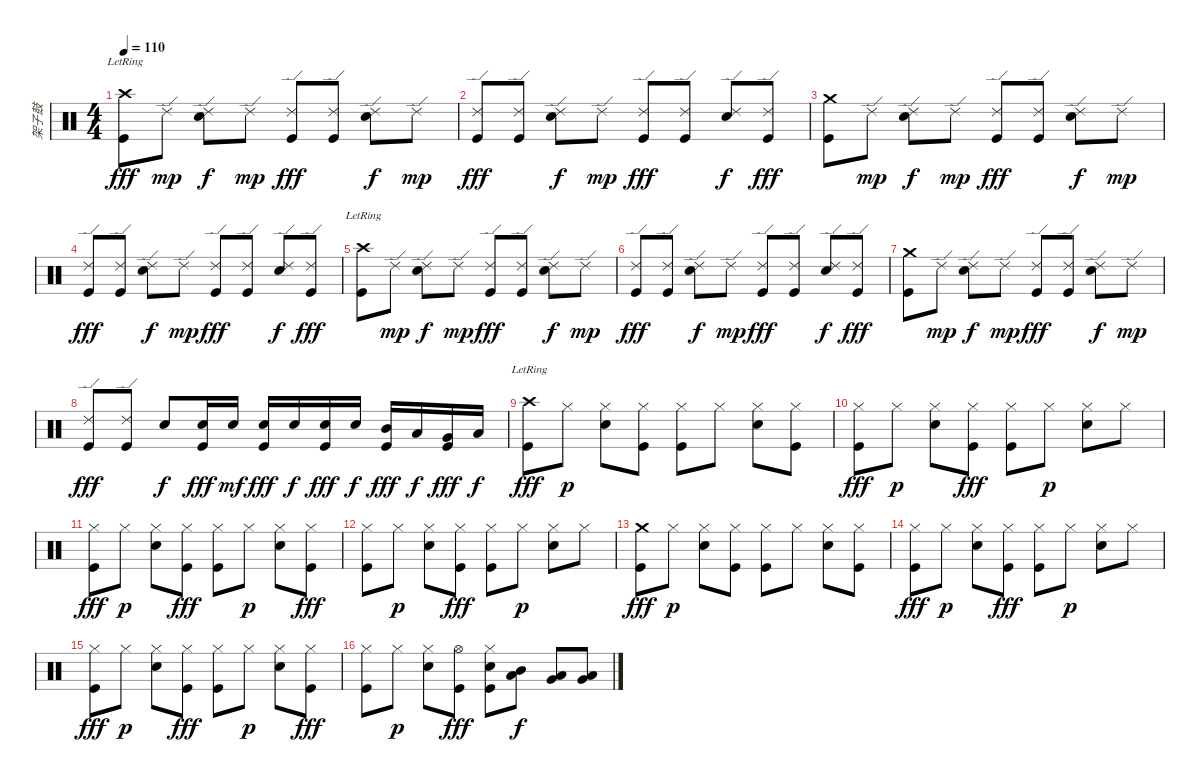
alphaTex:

\track ("架子鼓" "架子鼓") {instrument percussion}
\staff {score}
\articulation defaults
\ts (4 4)
\tempo 110
\clef neutral
\ks c
("Crash high (hit)"{lr} "Kick (hit)").8{dy fff} "Ride (edge) 2".8{dy mp} ("Ride (edge) 2" "Electric Snare (hit)").8{dy f} "Ride (edge) 2".8{dy mp} ("Ride (edge) 2" "Kick (hit)").8{dy fff} ("Ride (edge) 2" "Kick (hit)").8 ("Ride (edge) 2" "Electric Snare (hit)").8{dy f} "Ride (edge) 2".8{dy mp} |
("Ride (edge) 2" "Kick (hit)").8{dy fff} ("Ride (edge) 2" "Kick (hit)").8 ("Ride (edge) 2" "Electric Snare (hit)").8{dy f} "Ride (edge) 2".8{dy mp} ("Ride (edge) 2" "Kick (hit)").8{dy fff} ("Ride (edge) 2" "Kick (hit)").8 ("Ride (edge) 2" "Electric Snare (hit)").8{dy f} ("Ride (edge) 2" "Kick (hit)").8{dy fff} |
("Crash medium (hit)" "Kick (hit)").8 "Ride (edge) 2".8{dy mp} ("Ride (edge) 2" "Electric Snare (hit)").8{dy f} "Ride (edge) 2".8{dy mp} ("Ride (edge) 2" "Kick (hit)").8{dy fff} ("Ride (edge) 2" "Kick (hit)").8 ("Ride (edge) 2" "Electric Snare (hit)").8{dy f} "Ride (edge) 2".8{dy mp} |
("Ride (edge) 2" "Kick (hit)").8{dy fff} ("Ride (edge) 2" "Kick (hit)").8 ("Ride (edge) 2" "Electric Snare (hit)").8{dy f} "Ride (edge) 2".8{dy mp} ("Ride (edge) 2" "Kick (hit)").8{dy fff} ("Ride (edge) 2" "Kick (hit)").8 ("Ride (edge) 2" "Electric Snare (hit)").8{dy f} ("Ride (edge) 2" "Kick (hit)").8{dy fff} |
("Crash high (hit)"{lr} "Kick (hit)").8 "Ride (edge) 2".8{dy mp} ("Ride (edge) 2" "Electric Snare (hit)").8{dy f} "Ride (edge) 2".8{dy mp} ("Ride (edge) 2" "Kick (hit)").8{dy fff} ("Ride (edge) 2" "Kick (hit)").8 ("Ride (edge) 2" "Electric Snare (hit)").8{dy f} "Ride (edge) 2".8{dy mp} |
("Ride (edge) 2" "Kick (hit)").8{dy fff} ("Ride (edge) 2" "Kick (hit)").8 ("Ride (edge) 2" "Electric Snare (hit)").8{dy f} "Ride (edge) 2".8{dy mp} ("Ride (edge) 2" "Kick (hit)").8{dy fff} ("Ride (edge) 2" "Kick (hit)").8 ("Ride (edge) 2" "Electric Snare (hit)").8{dy f} ("Ride (edge) 2" "Kick (hit)").8{dy fff} |
("Crash medium (hit)" "Kick (hit)").8 "Ride (edge) 2".8{dy mp} ("Ride (edge) 2" "Electric Snare (hit)").8{dy f} "Ride (edge) 2".8{dy mp} ("Ride (edge) 2" "Kick (hit)").8{dy fff} ("Ride (edge) 2" "Kick (hit)").8 ("Ride (edge) 2" "Electric Snare (hit)").8{dy f} "Ride (edge) 2".8{dy mp} |
("Ride (edge) 2" "Kick (hit)").8{dy fff} ("Ride (edge) 2" "Kick (hit)").8 "Electric Snare (hit)".8{dy f} ("Electric Snare (hit)" "Kick (hit)").16{dy fff} "Electric Snare (hit)".16{dy mf} ("Electric Snare (hit)" "Kick (hit)").16{dy fff} "Electric Snare (hit)".16{dy f} ("Electric Snare (hit)" "Kick (hit)").16{dy fff} "Electric Snare (hit)".16{dy f} ("Mid Tom (hit)" "Kick (hit)").16{dy fff} "Low Tom (hit)".16{dy f} ("Very Low Tom (hit)" "Kick (hit)").16{dy fff} "Low Floor Tom (hit)".16{dy f} |
("Crash high (hit)"{lr} "Kick (hit)").8{dy fff} "Hi-Hat (closed)".8{dy p} ("Electric Snare (hit)" "Hi-Hat (closed)").8 ("Hi-Hat (closed)" "Kick (hit)").8 ("Hi-Hat (closed)" "Kick (hit)").8 "Hi-Hat (closed)".8 ("Electric Snare (hit)" "Hi-Hat (closed)").8 ("Hi-Hat (closed)" "Kick (hit)").8 |
("Hi-Hat (closed)" "Kick (hit)").8{dy fff} "Hi-Hat (closed)".8{dy p} ("Electric Snare (hit)" "Hi-Hat (closed)").8 ("Hi-Hat (closed)" "Kick (hit)").8{dy fff} ("Hi-Hat (closed)" "Kick (hit)").8 "Hi-Hat (closed)".8{dy p} ("Electric Snare (hit)" "Hi-Hat (closed)").8 "Hi-Hat (closed)".8 |
("Hi-Hat (closed)" "Kick (hit)").8{dy fff} "Hi-Hat (closed)".8{dy p} ("Electric Snare (hit)" "Hi-Hat (closed)").8 ("Hi-Hat (closed)" "Kick (hit)").8{dy fff} ("Hi-Hat (closed)" "Kick (hit)").8 "Hi-Hat (closed)".8{dy p} ("Electric Snare (hit)" "Hi-Hat (closed)").8 ("Hi-Hat (closed)" "Kick (hit)").8{dy fff} |
("Hi-Hat (closed)" "Kick (hit)").8 "Hi-Hat (closed)".8{dy p} ("Electric Snare (hit)" "Hi-Hat (closed)").8 ("Hi-Hat (closed)" "Kick (hit)").8{dy fff} ("Hi-Hat (closed)" "Kick (hit)").8 "Hi-Hat (closed)".8{dy p} ("Electric Snare (hit)" "Hi-Hat (closed)").8 "Hi-Hat (closed)".8 |
("Crash medium (hit)" "Kick (hit)").8{dy fff} "Hi-Hat (closed)".8{dy p} ("Electric Snare (hit)" "Hi-Hat (closed)").8 ("Hi-Hat (closed)" "Kick (hit)").8 ("Hi-Hat (closed)" "Kick (hit)").8 "Hi-Hat (closed)".8 ("Electric Snare (hit)" "Hi-Hat (closed)").8 ("Hi-Hat (closed)" "Kick (hit)").8 |
("Hi-Hat (closed)" "Kick (hit)").8{dy fff} "Hi-Hat (closed)".8{dy p} ("Electric Snare (hit)" "Hi-Hat (closed)").8 ("Hi-Hat (closed)" "Kick (hit)").8{dy fff} ("Hi-Hat (closed)" "Kick (hit)").8 "Hi-Hat (closed)".8{dy p} ("Electric Snare (hit)" "Hi-Hat (closed)").8 "Hi-Hat (closed)".8 |
("Hi-Hat (closed)" "Kick (hit)").8{dy fff} "Hi-Hat (closed)".8{dy p} ("Electric Snare (hit)" "Hi-Hat (closed)").8 ("Hi-Hat (closed)" "Kick (hit)").8{dy fff} ("Hi-Hat (closed)" "Kick (hit)").8 "Hi-Hat (closed)".8{dy p} ("Electric Snare (hit)" "Hi-Hat (closed)").8 ("Hi-Hat (closed)" "Kick (hit)").8{dy fff} |
("Hi-Hat (closed)" "Kick (hit)").8 "Hi-Hat (closed)".8{dy p} ("Electric Snare (hit)" "Hi-Hat (closed)").8 ("Hi-Hat (open)" "Kick (hit)").8{dy fff} ("Electric Snare (hit)" "Hi-Hat (closed)" "Kick (hit)").8 ("Mid Tom (hit)" "Low Tom (hit)").8{dy f} ("Low Tom (hit)" "Very Low Tom (hit)").8 ("Very Low Tom (hit)" "Low Floor Tom (hit)").8
